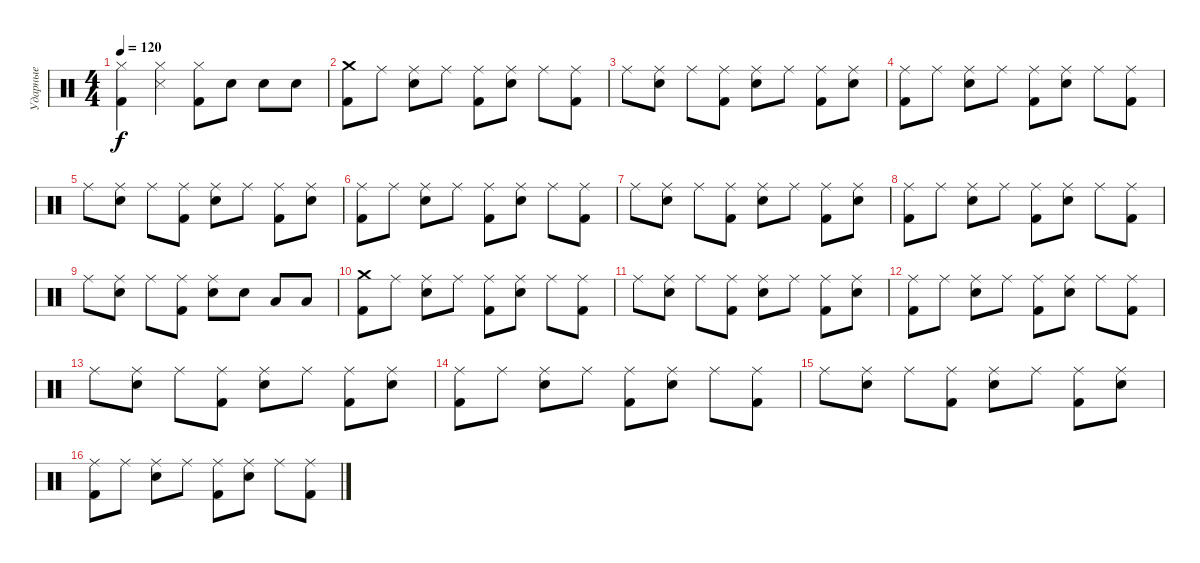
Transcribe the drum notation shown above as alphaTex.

\track ("Ударные" "Ударные") {instrument percussion}
\staff {score}
\articulation defaults
\ts (4 4)
\tempo 120
\clef neutral
\ks c
("Hi-Hat (closed)" "Kick (hit) 2").4{dy f} ("Hi-Hat (closed)" "Metronome (hit)").4 ("Hi-Hat (closed)" "Kick (hit) 2").8 "Electric Snare (hit)".8 "Electric Snare (hit)".8 "Electric Snare (hit)".8 |
("Crash medium (hit)" "Kick (hit) 2").8 "Ride (middle)".8 ("Ride (middle)" "Electric Snare (hit)").8 "Ride (middle)".8 ("Ride (middle)" "Kick (hit) 2").8 ("Ride (middle)" "Electric Snare (hit)").8 "Ride (middle)".8 ("Ride (middle)" "Kick (hit) 2").8 |
"Ride (middle)".8 ("Ride (middle)" "Electric Snare (hit)").8 "Ride (middle)".8 ("Ride (middle)" "Kick (hit) 2").8 ("Ride (middle)" "Electric Snare (hit)").8 "Ride (middle)".8 ("Ride (middle)" "Kick (hit) 2").8 ("Ride (middle)" "Electric Snare (hit)").8 |
("Ride (middle)" "Kick (hit) 2").8 "Ride (middle)".8 ("Ride (middle)" "Electric Snare (hit)").8 "Ride (middle)".8 ("Ride (middle)" "Kick (hit) 2").8 ("Ride (middle)" "Electric Snare (hit)").8 "Ride (middle)".8 ("Ride (middle)" "Kick (hit) 2").8 |
"Ride (middle)".8 ("Ride (middle)" "Electric Snare (hit)").8 "Ride (middle)".8 ("Ride (middle)" "Kick (hit) 2").8 ("Ride (middle)" "Electric Snare (hit)").8 "Ride (middle)".8 ("Ride (middle)" "Kick (hit) 2").8 ("Ride (middle)" "Electric Snare (hit)").8 |
("Ride (middle)" "Kick (hit) 2").8 "Ride (middle)".8 ("Ride (middle)" "Electric Snare (hit)").8 "Ride (middle)".8 ("Ride (middle)" "Kick (hit) 2").8 ("Ride (middle)" "Electric Snare (hit)").8 "Ride (middle)".8 ("Ride (middle)" "Kick (hit) 2").8 |
"Ride (middle)".8 ("Ride (middle)" "Electric Snare (hit)").8 "Ride (middle)".8 ("Ride (middle)" "Kick (hit) 2").8 ("Ride (middle)" "Electric Snare (hit)").8 "Ride (middle)".8 ("Ride (middle)" "Kick (hit) 2").8 ("Ride (middle)" "Electric Snare (hit)").8 |
("Ride (middle)" "Kick (hit) 2").8 "Ride (middle)".8 ("Ride (middle)" "Electric Snare (hit)").8 "Ride (middle)".8 ("Ride (middle)" "Kick (hit) 2").8 ("Ride (middle)" "Electric Snare (hit)").8 "Ride (middle)".8 ("Ride (middle)" "Kick (hit) 2").8 |
"Ride (middle)".8 ("Ride (middle)" "Electric Snare (hit)").8 "Ride (middle)".8 ("Ride (middle)" "Kick (hit) 2").8 ("Ride (middle)" "Electric Snare (hit)").8 "Electric Snare (hit)".8 "Low Tom (hit)".8 "Low Tom (hit)".8 |
("Crash medium (hit)" "Kick (hit) 2").8 "Ride (middle)".8 ("Ride (middle)" "Electric Snare (hit)").8 "Ride (middle)".8 ("Ride (middle)" "Kick (hit) 2").8 ("Ride (middle)" "Electric Snare (hit)").8 "Ride (middle)".8 ("Ride (middle)" "Kick (hit) 2").8 |
"Ride (middle)".8 ("Ride (middle)" "Electric Snare (hit)").8 "Ride (middle)".8 ("Ride (middle)" "Kick (hit) 2").8 ("Ride (middle)" "Electric Snare (hit)").8 "Ride (middle)".8 ("Ride (middle)" "Kick (hit) 2").8 ("Ride (middle)" "Electric Snare (hit)").8 |
("Ride (middle)" "Kick (hit) 2").8 "Ride (middle)".8 ("Ride (middle)" "Electric Snare (hit)").8 "Ride (middle)".8 ("Ride (middle)" "Kick (hit) 2").8 ("Ride (middle)" "Electric Snare (hit)").8 "Ride (middle)".8 ("Ride (middle)" "Kick (hit) 2").8 |
"Ride (middle)".8 ("Ride (middle)" "Electric Snare (hit)").8 "Ride (middle)".8 ("Ride (middle)" "Kick (hit) 2").8 ("Ride (middle)" "Electric Snare (hit)").8 "Ride (middle)".8 ("Ride (middle)" "Kick (hit) 2").8 ("Ride (middle)" "Electric Snare (hit)").8 |
("Ride (middle)" "Kick (hit) 2").8 "Ride (middle)".8 ("Ride (middle)" "Electric Snare (hit)").8 "Ride (middle)".8 ("Ride (middle)" "Kick (hit) 2").8 ("Ride (middle)" "Electric Snare (hit)").8 "Ride (middle)".8 ("Ride (middle)" "Kick (hit) 2").8 |
"Ride (middle)".8 ("Ride (middle)" "Electric Snare (hit)").8 "Ride (middle)".8 ("Ride (middle)" "Kick (hit) 2").8 ("Ride (middle)" "Electric Snare (hit)").8 "Ride (middle)".8 ("Ride (middle)" "Kick (hit) 2").8 ("Ride (middle)" "Electric Snare (hit)").8 |
("Ride (middle)" "Kick (hit) 2").8 "Ride (middle)".8 ("Ride (middle)" "Electric Snare (hit)").8 "Ride (middle)".8 ("Ride (middle)" "Kick (hit) 2").8 ("Ride (middle)" "Electric Snare (hit)").8 "Ride (middle)".8 ("Ride (middle)" "Kick (hit) 2").8
